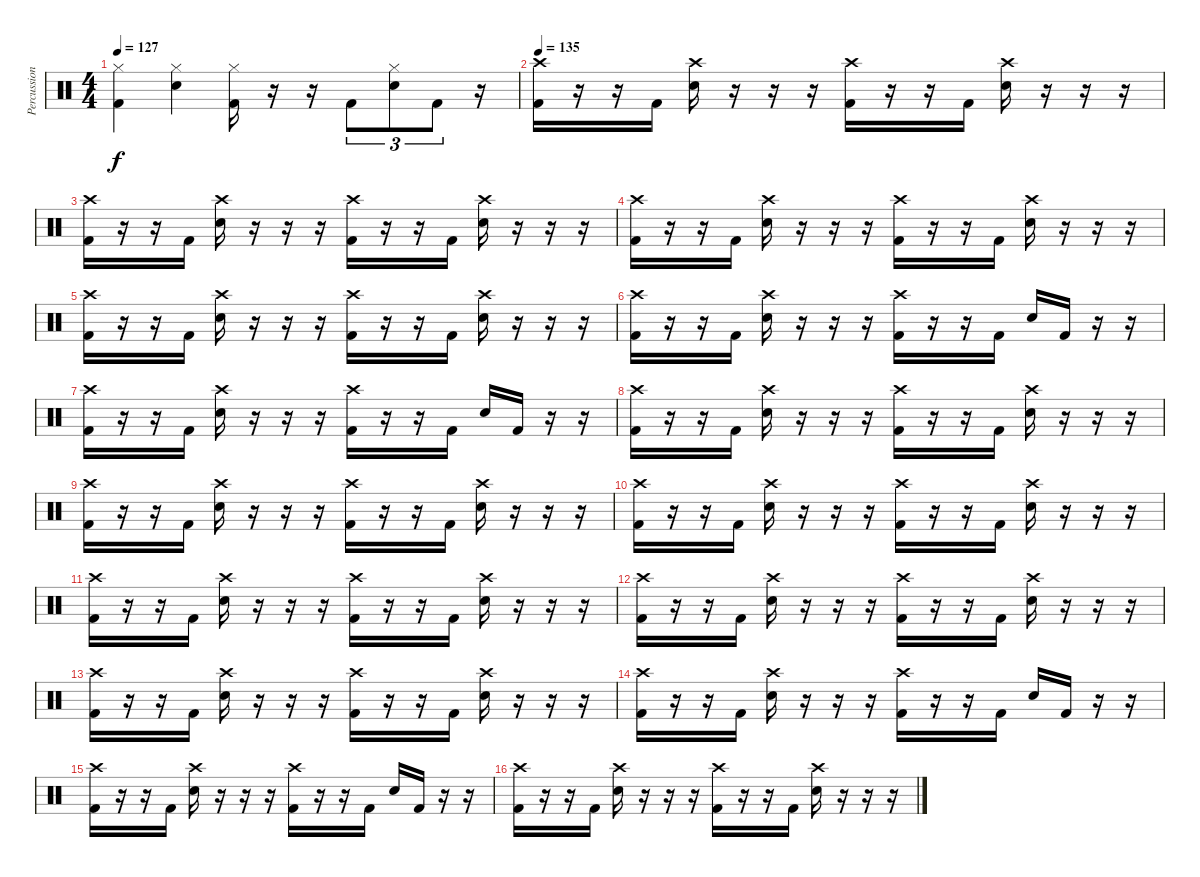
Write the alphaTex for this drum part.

\track ("Percussions" "Percussion") {instrument percussion}
\staff {score}
\articulation defaults
\ts (4 4)
\tempo 127
\clef neutral
\ks c
("Hi-Hat (closed)" "Kick (hit) 2").4{dy f} ("Hi-Hat (closed)" "Electric Snare (hit)").4 ("Hi-Hat (closed)" "Kick (hit) 2").16 r.16 r.16 "Kick (hit) 2".8{tu (3 2)} ("Hi-Hat (closed)" "Electric Snare (hit)").8{tu (3 2)} "Kick (hit) 2".8{tu (3 2)} r.16 |
\tempo 135
("Crash high (hit)" "Kick (hit) 2").16 r.16 r.16 "Kick (hit) 2".16 ("Crash high (hit)" "Electric Snare (hit)").16 r.16 r.16 r.16 ("Crash high (hit)" "Kick (hit) 2").16 r.16 r.16 "Kick (hit) 2".16 ("Crash high (hit)" "Electric Snare (hit)").16 r.16 r.16 r.16 |
("Crash high (hit)" "Kick (hit) 2").16 r.16 r.16 "Kick (hit) 2".16 ("Crash high (hit)" "Electric Snare (hit)").16 r.16 r.16 r.16 ("Crash high (hit)" "Kick (hit) 2").16 r.16 r.16 "Kick (hit) 2".16 ("Crash high (hit)" "Electric Snare (hit)").16 r.16 r.16 r.16 |
("Crash high (hit)" "Kick (hit) 2").16 r.16 r.16 "Kick (hit) 2".16 ("Crash high (hit)" "Electric Snare (hit)").16 r.16 r.16 r.16 ("Crash high (hit)" "Kick (hit) 2").16 r.16 r.16 "Kick (hit) 2".16 ("Crash high (hit)" "Electric Snare (hit)").16 r.16 r.16 r.16 |
("Crash high (hit)" "Kick (hit) 2").16 r.16 r.16 "Kick (hit) 2".16 ("Crash high (hit)" "Electric Snare (hit)").16 r.16 r.16 r.16 ("Crash high (hit)" "Kick (hit) 2").16 r.16 r.16 "Kick (hit) 2".16 ("Crash high (hit)" "Electric Snare (hit)").16 r.16 r.16 r.16 |
("Crash high (hit)" "Kick (hit) 2").16 r.16 r.16 "Kick (hit) 2".16 ("Crash high (hit)" "Electric Snare (hit)").16 r.16 r.16 r.16 ("Crash high (hit)" "Kick (hit) 2").16 r.16 r.16 "Kick (hit) 2".16 "Electric Snare (hit)".16 "Kick (hit) 2".16 r.16 r.16 |
("Crash high (hit)" "Kick (hit) 2").16 r.16 r.16 "Kick (hit) 2".16 ("Crash high (hit)" "Electric Snare (hit)").16 r.16 r.16 r.16 ("Crash high (hit)" "Kick (hit) 2").16 r.16 r.16 "Kick (hit) 2".16 "Electric Snare (hit)".16 "Kick (hit) 2".16 r.16 r.16 |
("Crash high (hit)" "Kick (hit) 2").16 r.16 r.16 "Kick (hit) 2".16 ("Crash high (hit)" "Electric Snare (hit)").16 r.16 r.16 r.16 ("Crash high (hit)" "Kick (hit) 2").16 r.16 r.16 "Kick (hit) 2".16 ("Crash high (hit)" "Electric Snare (hit)").16 r.16 r.16 r.16 |
("Crash high (hit)" "Kick (hit) 2").16 r.16 r.16 "Kick (hit) 2".16 ("Crash high (hit)" "Electric Snare (hit)").16 r.16 r.16 r.16 ("Crash high (hit)" "Kick (hit) 2").16 r.16 r.16 "Kick (hit) 2".16 ("Crash high (hit)" "Electric Snare (hit)").16 r.16 r.16 r.16 |
("Crash high (hit)" "Kick (hit) 2").16 r.16 r.16 "Kick (hit) 2".16 ("Crash high (hit)" "Electric Snare (hit)").16 r.16 r.16 r.16 ("Crash high (hit)" "Kick (hit) 2").16 r.16 r.16 "Kick (hit) 2".16 ("Crash high (hit)" "Electric Snare (hit)").16 r.16 r.16 r.16 |
("Crash high (hit)" "Kick (hit) 2").16 r.16 r.16 "Kick (hit) 2".16 ("Crash high (hit)" "Electric Snare (hit)").16 r.16 r.16 r.16 ("Crash high (hit)" "Kick (hit) 2").16 r.16 r.16 "Kick (hit) 2".16 ("Crash high (hit)" "Electric Snare (hit)").16 r.16 r.16 r.16 |
("Crash high (hit)" "Kick (hit) 2").16 r.16 r.16 "Kick (hit) 2".16 ("Crash high (hit)" "Electric Snare (hit)").16 r.16 r.16 r.16 ("Crash high (hit)" "Kick (hit) 2").16 r.16 r.16 "Kick (hit) 2".16 ("Crash high (hit)" "Electric Snare (hit)").16 r.16 r.16 r.16 |
("Crash high (hit)" "Kick (hit) 2").16 r.16 r.16 "Kick (hit) 2".16 ("Crash high (hit)" "Electric Snare (hit)").16 r.16 r.16 r.16 ("Crash high (hit)" "Kick (hit) 2").16 r.16 r.16 "Kick (hit) 2".16 ("Crash high (hit)" "Electric Snare (hit)").16 r.16 r.16 r.16 |
("Crash high (hit)" "Kick (hit) 2").16 r.16 r.16 "Kick (hit) 2".16 ("Crash high (hit)" "Electric Snare (hit)").16 r.16 r.16 r.16 ("Crash high (hit)" "Kick (hit) 2").16 r.16 r.16 "Kick (hit) 2".16 "Electric Snare (hit)".16 "Kick (hit) 2".16 r.16 r.16 |
("Crash high (hit)" "Kick (hit) 2").16 r.16 r.16 "Kick (hit) 2".16 ("Crash high (hit)" "Electric Snare (hit)").16 r.16 r.16 r.16 ("Crash high (hit)" "Kick (hit) 2").16 r.16 r.16 "Kick (hit) 2".16 "Electric Snare (hit)".16 "Kick (hit) 2".16 r.16 r.16 |
("Crash high (hit)" "Kick (hit) 2").16 r.16 r.16 "Kick (hit) 2".16 ("Crash high (hit)" "Electric Snare (hit)").16 r.16 r.16 r.16 ("Crash high (hit)" "Kick (hit) 2").16 r.16 r.16 "Kick (hit) 2".16 ("Crash high (hit)" "Electric Snare (hit)").16 r.16 r.16 r.16
